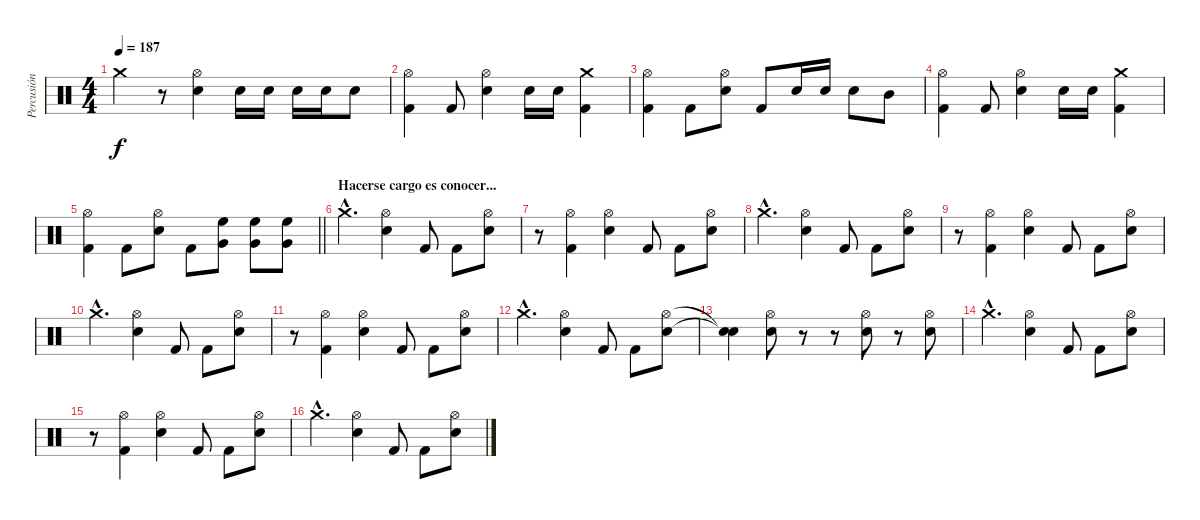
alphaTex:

\track ("Percusión" "Percusión") {instrument percussion}
\staff {score}
\articulation defaults
\ts (4 4)
\tempo 187
\clef neutral
\ks c "Crash medium (hit)".4{dy f}
r.8 ("Hi-Hat (open)" "Snare (hit) 2").4 "Snare (hit) 2".16 "Snare (hit) 2".16 "Snare (hit) 2".16 "Snare (hit) 2".16 "Snare (hit) 2".8 |
("Hi-Hat (open)" "Kick (hit) 2").4 "Kick (hit) 2".8 ("Hi-Hat (open)" "Snare (hit) 2").4 "Snare (hit) 2".16 "Snare (hit) 2".16 ("Crash medium (hit)" "Kick (hit) 2").4 |
("Hi-Hat (open)" "Kick (hit) 2").4 "Kick (hit) 2".8 ("Hi-Hat (open)" "Snare (hit) 2").8 "Kick (hit) 2".8 "Snare (hit) 2".16 "Snare (hit) 2".16 "Snare (hit) 2".8 "Mid Tom (hit)".8 |
("Hi-Hat (open)" "Kick (hit) 2").4 "Kick (hit) 2".8 ("Hi-Hat (open)" "Snare (hit) 2").4 "Snare (hit) 2".16 "Snare (hit) 2".16 ("Crash medium (hit)" "Kick (hit) 2").4 |
\barLineRight lightlight
("Hi-Hat (open)" "Kick (hit) 2").4 "Kick (hit) 2".8 ("Hi-Hat (open)" "Snare (hit) 2").8 "Kick (hit) 2".8 ("Very Low Tom (hit)" "High Floor Tom (hit)").8 ("Very Low Tom (hit)" "High Floor Tom (hit)").8 ("Very Low Tom (hit)" "High Floor Tom (hit)").8 |
\section ("" "Hacerse cargo es conocer...")
"Crash medium (hit)"{hac}.4{d} ("Hi-Hat (open)" "Snare (hit) 2").4 "Kick (hit) 2".8 "Kick (hit) 2".8 ("Hi-Hat (open)" "Snare (hit) 2").8 |
r.8 ("Hi-Hat (open)" "Kick (hit) 2").4 ("Hi-Hat (open)" "Snare (hit) 2").4 "Kick (hit) 2".8 "Kick (hit) 2".8 ("Hi-Hat (open)" "Snare (hit) 2").8 |
"Crash medium (hit)"{hac}.4{d} ("Hi-Hat (open)" "Snare (hit) 2").4 "Kick (hit) 2".8 "Kick (hit) 2".8 ("Hi-Hat (open)" "Snare (hit) 2").8 |
r.8 ("Hi-Hat (open)" "Kick (hit) 2").4 ("Hi-Hat (open)" "Snare (hit) 2").4 "Kick (hit) 2".8 "Kick (hit) 2".8 ("Hi-Hat (open)" "Snare (hit) 2").8 |
"Crash medium (hit)"{hac}.4{d} ("Hi-Hat (open)" "Snare (hit) 2").4 "Kick (hit) 2".8 "Kick (hit) 2".8 ("Hi-Hat (open)" "Snare (hit) 2").8 |
r.8 ("Hi-Hat (open)" "Kick (hit) 2").4 ("Hi-Hat (open)" "Snare (hit) 2").4 "Kick (hit) 2".8 "Kick (hit) 2".8 ("Hi-Hat (open)" "Snare (hit) 2").8 |
"Crash medium (hit)"{hac}.4{d} ("Hi-Hat (open)" "Snare (hit) 2").4 "Kick (hit) 2".8 "Kick (hit) 2".8 ("Hi-Hat (open)" "Snare (hit) 2").8 |
("Snare (hit)"{t} "Snare (hit)"{t}).4 ("Hi-Hat (open)" "Snare (hit) 2").8 r.8 r.8 ("Hi-Hat (open)" "Snare (hit) 2").8 r.8 ("Hi-Hat (open)" "Snare (hit) 2").8 |
"Crash medium (hit)"{hac}.4{d} ("Hi-Hat (open)" "Snare (hit) 2").4 "Kick (hit) 2".8 "Kick (hit) 2".8 ("Hi-Hat (open)" "Snare (hit) 2").8 |
r.8 ("Hi-Hat (open)" "Kick (hit) 2").4 ("Hi-Hat (open)" "Snare (hit) 2").4 "Kick (hit) 2".8 "Kick (hit) 2".8 ("Hi-Hat (open)" "Snare (hit) 2").8 |
"Crash medium (hit)"{hac}.4{d} ("Hi-Hat (open)" "Snare (hit) 2").4 "Kick (hit) 2".8 "Kick (hit) 2".8 ("Hi-Hat (open)" "Snare (hit) 2").8
